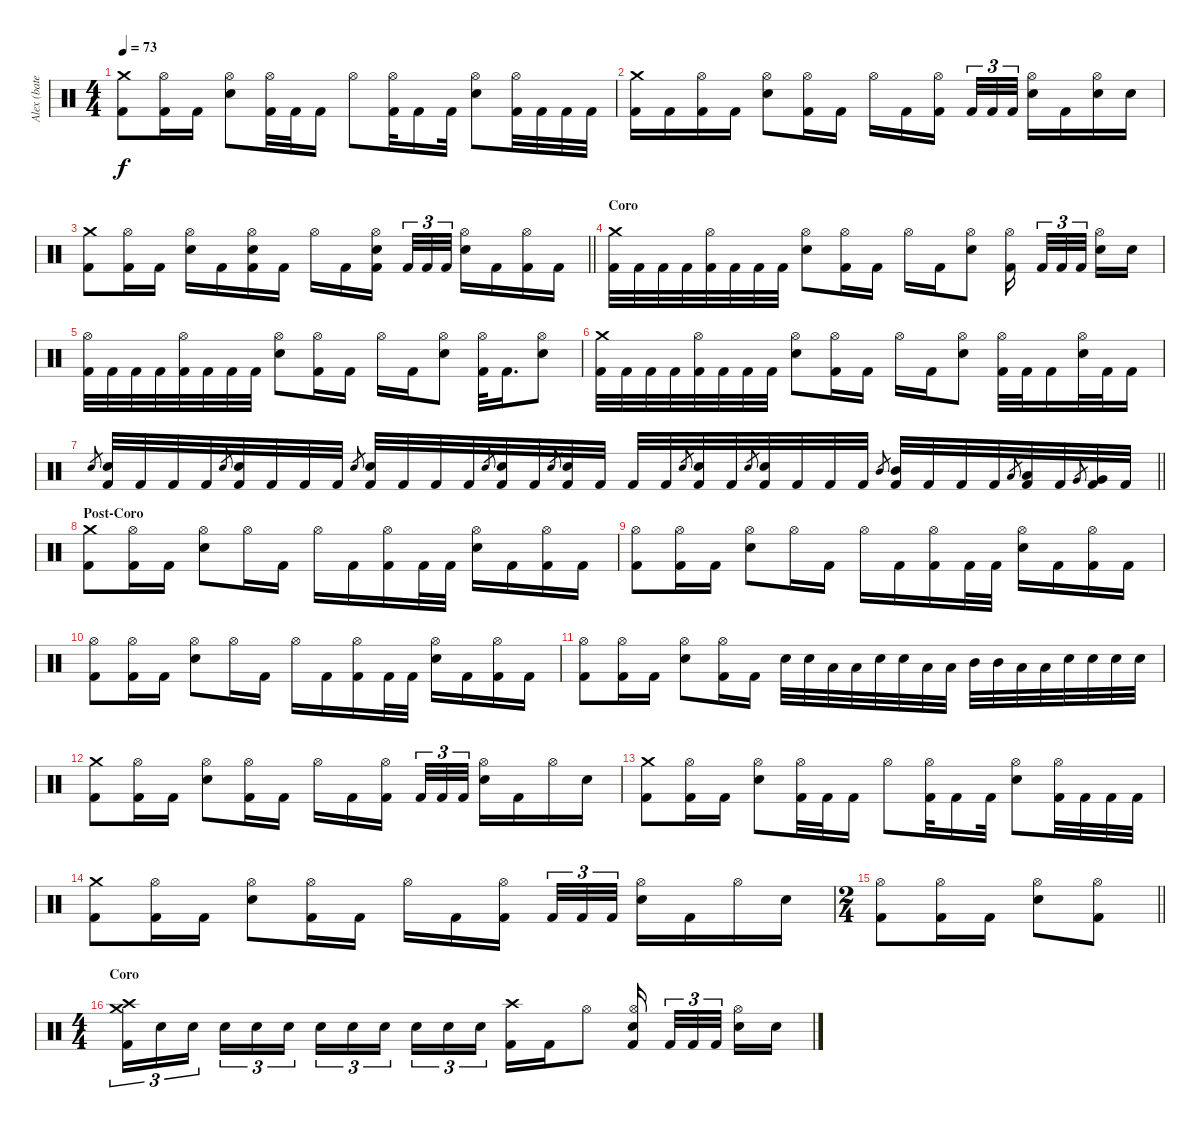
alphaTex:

\track ("Alex (bateria)" "Alex (bate") {instrument percussion}
\staff {score}
\articulation defaults
\ts (4 4)
\tempo 73
\clef neutral
\ks c
("Crash medium (hit)" "Kick (hit) 2").8{dy f} ("Hi-Hat (open)" "Kick (hit) 2").16 "Kick (hit) 2".16 ("Hi-Hat (open)" "Electric Snare (hit)").8 ("Hi-Hat (open)" "Kick (hit) 2").32 "Kick (hit) 2".32 "Kick (hit) 2".16 "Hi-Hat (open)".8 ("Hi-Hat (open)" "Kick (hit) 2").32 "Kick (hit) 2".16 "Kick (hit) 2".32 ("Hi-Hat (open)" "Electric Snare (hit)").8 ("Hi-Hat (open)" "Kick (hit) 2").32 "Kick (hit) 2".32 "Kick (hit) 2".32 "Kick (hit) 2".32 |
("Crash medium (hit)" "Kick (hit) 2").16 "Kick (hit) 2".16 ("Hi-Hat (open)" "Kick (hit) 2").16 "Kick (hit) 2".16 ("Hi-Hat (open)" "Electric Snare (hit)").8 ("Hi-Hat (open)" "Kick (hit) 2").16 "Kick (hit) 2".16 "Hi-Hat (open)".16 "Kick (hit) 2".16 ("Hi-Hat (open)" "Kick (hit) 2").16{beam splitsecondary} "Kick (hit) 2".32{tu (3 2)} "Kick (hit) 2".32{tu (3 2)} "Kick (hit) 2".32{tu (3 2)} ("Hi-Hat (open)" "Electric Snare (hit)").16 "Kick (hit) 2".16 ("Hi-Hat (open)" "Electric Snare (hit)").16 "Electric Snare (hit)".16 |
\barLineRight lightlight
("Crash medium (hit)" "Kick (hit) 2").8 ("Hi-Hat (open)" "Kick (hit) 2").16 "Kick (hit) 2".16 ("Hi-Hat (open)" "Electric Snare (hit)").16 "Kick (hit) 2".16 ("Hi-Hat (open)" "Electric Snare (hit)" "Kick (hit) 2").16 "Kick (hit) 2".16 "Hi-Hat (open)".16 "Kick (hit) 2".16 ("Hi-Hat (open)" "Electric Snare (hit)" "Kick (hit) 2").16{beam splitsecondary} "Kick (hit) 2".32{tu (3 2)} "Kick (hit) 2".32{tu (3 2)} "Kick (hit) 2".32{tu (3 2)} ("Hi-Hat (open)" "Electric Snare (hit)").16 "Kick (hit) 2".16 ("Hi-Hat (open)" "Kick (hit) 2").16 "Kick (hit) 2".16 |
\section ("" "Coro")
("Crash medium (hit)" "Kick (hit) 2").32 "Kick (hit) 2".32 "Kick (hit) 2".32 "Kick (hit) 2".32 ("Hi-Hat (open)" "Kick (hit) 2").32 "Kick (hit) 2".32 "Kick (hit) 2".32 "Kick (hit) 2".32 ("Hi-Hat (open)" "Electric Snare (hit)").8 ("Hi-Hat (open)" "Kick (hit) 2").16 "Kick (hit) 2".16 "Hi-Hat (open)".16 "Kick (hit) 2".16 ("Hi-Hat (open)" "Electric Snare (hit)").8 ("Hi-Hat (open)" "Kick (hit) 2").16{beam splitsecondary} "Kick (hit) 2".32{tu (3 2)} "Kick (hit) 2".32{tu (3 2)} "Kick (hit) 2".32{tu (3 2) beam splitsecondary} ("Hi-Hat (open)" "Electric Snare (hit)").16 "Electric Snare (hit)".16 |
("Hi-Hat (open)" "Kick (hit) 2").32 "Kick (hit) 2".32 "Kick (hit) 2".32 "Kick (hit) 2".32 ("Hi-Hat (open)" "Kick (hit) 2").32 "Kick (hit) 2".32 "Kick (hit) 2".32 "Kick (hit) 2".32 ("Hi-Hat (open)" "Electric Snare (hit)").8 ("Hi-Hat (open)" "Kick (hit) 2").16 "Kick (hit) 2".16 "Hi-Hat (open)".16 "Kick (hit) 2".16 ("Hi-Hat (open)" "Electric Snare (hit)").8 ("Hi-Hat (open)" "Kick (hit) 2").32 "Kick (hit) 2".16{d} ("Hi-Hat (open)" "Electric Snare (hit)").8 |
("Crash medium (hit)" "Kick (hit) 2").32 "Kick (hit) 2".32 "Kick (hit) 2".32 "Kick (hit) 2".32 ("Hi-Hat (open)" "Kick (hit) 2").32 "Kick (hit) 2".32 "Kick (hit) 2".32 "Kick (hit) 2".32 ("Hi-Hat (open)" "Electric Snare (hit)").8 ("Hi-Hat (open)" "Kick (hit) 2").16 "Kick (hit) 2".16 "Hi-Hat (open)".16 "Kick (hit) 2".16 ("Hi-Hat (open)" "Electric Snare (hit)").8 ("Hi-Hat (open)" "Kick (hit) 2").32 "Kick (hit) 2".32 "Kick (hit) 2".16 ("Hi-Hat (open)" "Electric Snare (hit)").32 "Kick (hit) 2".32 "Kick (hit) 2".16 |
\barLineRight lightlight "Electric Snare (hit)".8{gr}
("Electric Snare (hit)" "Kick (hit) 2").32 "Kick (hit) 2".32 "Kick (hit) 2".32 "Kick (hit) 2".32 "Electric Snare (hit)".8{gr} ("Electric Snare (hit)" "Kick (hit) 2").32 "Kick (hit) 2".32 "Kick (hit) 2".32 "Kick (hit) 2".32 "Electric Snare (hit)".8{gr} ("Electric Snare (hit)" "Kick (hit) 2").32 "Kick (hit) 2".32 "Kick (hit) 2".32 "Kick (hit) 2".32 "Electric Snare (hit)".8{gr} ("Electric Snare (hit)" "Kick (hit) 2").32 "Kick (hit) 2".32 "Electric Snare (hit)".8{gr} ("Electric Snare (hit)" "Kick (hit) 2").32 "Kick (hit) 2".32 "Kick (hit) 2".32 "Kick (hit) 2".32 "Electric Snare (hit)".8{gr} ("Electric Snare (hit)" "Kick (hit) 2").32 "Kick (hit) 2".32 "Electric Snare (hit)".8{gr} ("Electric Snare (hit)" "Kick (hit) 2").32 "Kick (hit) 2".32 "Kick (hit) 2".32 "Kick (hit) 2".32 "Mid Tom (hit)".8{gr} ("Mid Tom (hit)" "Kick (hit) 2").32 "Kick (hit) 2".32 "Kick (hit) 2".32 "Kick (hit) 2".32 "Low Tom (hit)".8{gr} ("Low Tom (hit)" "Kick (hit) 2").32 "Kick (hit) 2".32 "Very Low Tom (hit)".8{gr} ("Very Low Tom (hit)" "Kick (hit) 2").32 "Kick (hit) 2".32 |
\section ("" "Post-Coro")
("Crash medium (hit)" "Kick (hit) 2").8 ("Hi-Hat (open)" "Kick (hit) 2").16 "Kick (hit) 2".16 ("Hi-Hat (open)" "Electric Snare (hit)").8 "Hi-Hat (open)".16 "Kick (hit) 2".16 "Hi-Hat (open)".16 "Kick (hit) 2".16 ("Hi-Hat (open)" "Kick (hit) 2").16 "Kick (hit) 2".32 "Kick (hit) 2".32 ("Hi-Hat (open)" "Electric Snare (hit)").16 "Kick (hit) 2".16 ("Hi-Hat (open)" "Kick (hit) 2").16 "Kick (hit) 2".16 |
("Hi-Hat (open)" "Kick (hit) 2").8 ("Hi-Hat (open)" "Kick (hit) 2").16 "Kick (hit) 2".16 ("Hi-Hat (open)" "Electric Snare (hit)").8 "Hi-Hat (open)".16 "Kick (hit) 2".16 "Hi-Hat (open)".16 "Kick (hit) 2".16 ("Hi-Hat (open)" "Kick (hit) 2").16 "Kick (hit) 2".32 "Kick (hit) 2".32 ("Hi-Hat (open)" "Electric Snare (hit)").16 "Kick (hit) 2".16 ("Hi-Hat (open)" "Kick (hit) 2").16 "Kick (hit) 2".16 |
("Hi-Hat (open)" "Kick (hit) 2").8 ("Hi-Hat (open)" "Kick (hit) 2").16 "Kick (hit) 2".16 ("Hi-Hat (open)" "Electric Snare (hit)").8 "Hi-Hat (open)".16 "Kick (hit) 2".16 "Hi-Hat (open)".16 "Kick (hit) 2".16 ("Hi-Hat (open)" "Kick (hit) 2").16 "Kick (hit) 2".32 "Kick (hit) 2".32 ("Hi-Hat (open)" "Electric Snare (hit)").16 "Kick (hit) 2".16 ("Hi-Hat (open)" "Kick (hit) 2").16 "Kick (hit) 2".16 |
("Hi-Hat (open)" "Kick (hit) 2").8 ("Hi-Hat (open)" "Kick (hit) 2").16 "Kick (hit) 2".16 ("Hi-Hat (open)" "Electric Snare (hit)").8 ("Hi-Hat (open)" "Kick (hit) 2").16 "Kick (hit) 2".16 "Electric Snare (hit)".32 "Electric Snare (hit)".32 "Low Tom (hit)".32 "Low Tom (hit)".32 "Electric Snare (hit)".32 "Electric Snare (hit)".32 "Low Tom (hit)".32 "Low Tom (hit)".32 "Mid Tom (hit)".32 "Mid Tom (hit)".32 "Low Tom (hit)".32 "Low Tom (hit)".32 "Electric Snare (hit)".32 "Electric Snare (hit)".32 "Electric Snare (hit)".32 "Electric Snare (hit)".32 |
("Crash medium (hit)" "Kick (hit) 2").8 ("Hi-Hat (open)" "Kick (hit) 2").16 "Kick (hit) 2".16 ("Hi-Hat (open)" "Electric Snare (hit)").8 ("Hi-Hat (open)" "Kick (hit) 2").16 "Kick (hit) 2".16 "Hi-Hat (open)".16 "Kick (hit) 2".16 ("Hi-Hat (open)" "Kick (hit) 2").16{beam splitsecondary} "Kick (hit) 2".32{tu (3 2)} "Kick (hit) 2".32{tu (3 2)} "Kick (hit) 2".32{tu (3 2)} ("Hi-Hat (open)" "Electric Snare (hit)").16 "Kick (hit) 2".16 "Hi-Hat (open)".16 "Electric Snare (hit)".16 |
("Crash medium (hit)" "Kick (hit) 2").8 ("Hi-Hat (open)" "Kick (hit) 2").16 "Kick (hit) 2".16 ("Hi-Hat (open)" "Electric Snare (hit)").8 ("Hi-Hat (open)" "Kick (hit) 2").32 "Kick (hit) 2".32 "Kick (hit) 2".16 "Hi-Hat (open)".8 ("Hi-Hat (open)" "Kick (hit) 2").32 "Kick (hit) 2".16 "Kick (hit) 2".32 ("Hi-Hat (open)" "Electric Snare (hit)").8 ("Hi-Hat (open)" "Kick (hit) 2").32 "Kick (hit) 2".32 "Kick (hit) 2".32 "Kick (hit) 2".32 |
("Crash medium (hit)" "Kick (hit) 2").8 ("Hi-Hat (open)" "Kick (hit) 2").16 "Kick (hit) 2".16 ("Hi-Hat (open)" "Electric Snare (hit)").8 ("Hi-Hat (open)" "Kick (hit) 2").16 "Kick (hit) 2".16 "Hi-Hat (open)".16 "Kick (hit) 2".16 ("Hi-Hat (open)" "Kick (hit) 2").16{beam splitsecondary} "Kick (hit) 2".32{tu (3 2)} "Kick (hit) 2".32{tu (3 2)} "Kick (hit) 2".32{tu (3 2)} ("Hi-Hat (open)" "Electric Snare (hit)").16 "Kick (hit) 2".16 "Hi-Hat (open)".16 "Electric Snare (hit)".16 |
\ts (2 4)
\barLineRight lightlight
("Hi-Hat (open)" "Kick (hit) 2").8 ("Hi-Hat (open)" "Kick (hit) 2").16 "Kick (hit) 2".16 ("Hi-Hat (open)" "Electric Snare (hit)").8 ("Hi-Hat (open)" "Kick (hit) 2").8 |
\ts (4 4)
\section ("" "Coro")
("Crash medium (hit)" "Crash high (hit)" "Kick (hit) 2").16{tu (3 2)} "Electric Snare (hit)".16{tu (3 2)} "Electric Snare (hit)".16{tu (3 2) beam splitsecondary} "Electric Snare (hit)".16{tu (3 2)} "Electric Snare (hit)".16{tu (3 2)} "Electric Snare (hit)".16{tu (3 2)} "Electric Snare (hit)".16{tu (3 2)} "Electric Snare (hit)".16{tu (3 2)} "Electric Snare (hit)".16{tu (3 2) beam splitsecondary} "Electric Snare (hit)".16{tu (3 2)} "Electric Snare (hit)".16{tu (3 2)} "Electric Snare (hit)".16{tu (3 2)} ("Crash high (hit)" "Kick (hit) 2").16 "Kick (hit) 2".16 "Hi-Hat (open)".8 ("Hi-Hat (open)" "Electric Snare (hit)" "Kick (hit) 2").16{beam splitsecondary} "Kick (hit) 2".32{tu (3 2)} "Kick (hit) 2".32{tu (3 2)} "Kick (hit) 2".32{tu (3 2) beam splitsecondary} ("Hi-Hat (open)" "Electric Snare (hit)").16 "Electric Snare (hit)".16
